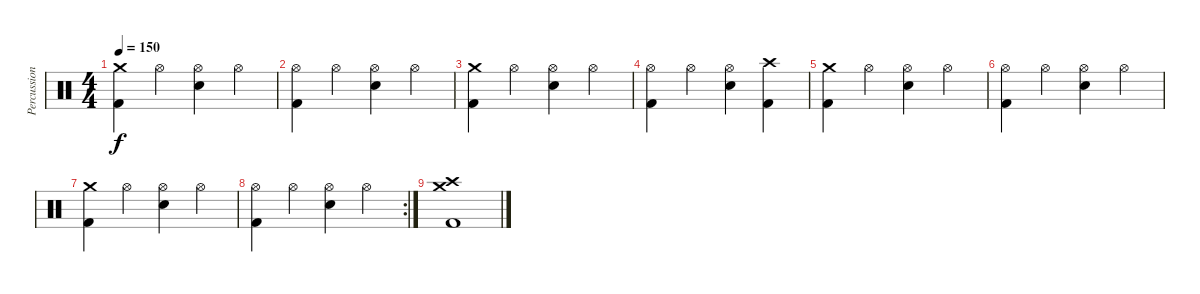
\track ("Percussion" "Percussion") {instrument percussion}
\staff {score}
\articulation defaults
\ts (4 4)
\tempo 150
\clef neutral
\ks c
("Crash medium (hit)" "Kick (hit) 2").4{dy f} "Hi-Hat (open)".4 ("Hi-Hat (open)" "Electric Snare (hit)").4 "Hi-Hat (open)".4 |
("Hi-Hat (open)" "Kick (hit) 2").4 "Hi-Hat (open)".4 ("Hi-Hat (open)" "Electric Snare (hit)").4 "Hi-Hat (open)".4 |
("Crash medium (hit)" "Kick (hit) 2").4 "Hi-Hat (open)".4 ("Hi-Hat (open)" "Electric Snare (hit)").4 "Hi-Hat (open)".4 |
("Hi-Hat (open)" "Kick (hit) 2").4 "Hi-Hat (open)".4 ("Hi-Hat (open)" "Electric Snare (hit)").4 ("Crash high (hit)" "Kick (hit) 2").4 |
("Crash medium (hit)" "Kick (hit) 2").4 "Hi-Hat (open)".4 ("Hi-Hat (open)" "Electric Snare (hit)").4 "Hi-Hat (open)".4 |
("Hi-Hat (open)" "Kick (hit) 2").4 "Hi-Hat (open)".4 ("Hi-Hat (open)" "Electric Snare (hit)").4 "Hi-Hat (open)".4 |
("Crash medium (hit)" "Kick (hit) 2").4 "Hi-Hat (open)".4 ("Hi-Hat (open)" "Electric Snare (hit)").4 "Hi-Hat (open)".4 |
\rc 2
("Hi-Hat (open)" "Kick (hit) 2").4 "Hi-Hat (open)".4 ("Hi-Hat (open)" "Electric Snare (hit)").4 "Hi-Hat (open)".4 |
("Crash high (hit)" "Crash medium (hit)" "Kick (hit) 2").1
